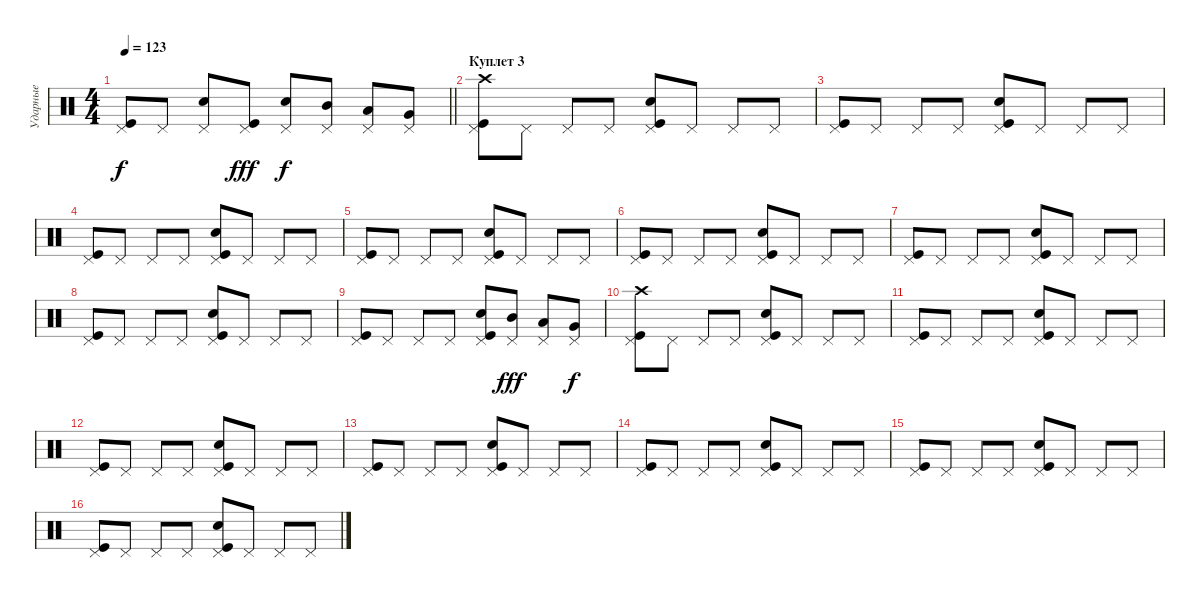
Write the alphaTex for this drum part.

\track ("Ударные" "Ударные") {instrument percussion}
\staff {score}
\articulation defaults
\ts (4 4)
\tempo 123
\clef neutral
\barLineRight lightlight
\ks c
("Kick (hit)" "Pedal Hi-Hat (hit)").8{dy f} "Pedal Hi-Hat (hit)".8 ("Pedal Hi-Hat (hit)" "Snare (hit) 2").8 ("Kick (hit)" "Pedal Hi-Hat (hit)").8{dy fff} ("Pedal Hi-Hat (hit)" "Snare (hit) 2").8{dy f} ("Pedal Hi-Hat (hit)" "Mid Tom (hit)").8 ("Pedal Hi-Hat (hit)" "Low Tom (hit)").8 ("Pedal Hi-Hat (hit)" "Very Low Tom (hit)").8 |
\section ("" "Куплет 3")
("Kick (hit)" "Pedal Hi-Hat (hit)" "Crash high (hit)").8 "Pedal Hi-Hat (hit)".8 "Pedal Hi-Hat (hit)".8 "Pedal Hi-Hat (hit)".8 ("Kick (hit)" "Pedal Hi-Hat (hit)" "Snare (hit) 2").8 "Pedal Hi-Hat (hit)".8 "Pedal Hi-Hat (hit)".8 "Pedal Hi-Hat (hit)".8 |
("Kick (hit)" "Pedal Hi-Hat (hit)").8 "Pedal Hi-Hat (hit)".8 "Pedal Hi-Hat (hit)".8 "Pedal Hi-Hat (hit)".8 ("Kick (hit)" "Pedal Hi-Hat (hit)" "Snare (hit) 2").8 "Pedal Hi-Hat (hit)".8 "Pedal Hi-Hat (hit)".8 "Pedal Hi-Hat (hit)".8 |
("Kick (hit)" "Pedal Hi-Hat (hit)").8 "Pedal Hi-Hat (hit)".8 "Pedal Hi-Hat (hit)".8 "Pedal Hi-Hat (hit)".8 ("Kick (hit)" "Pedal Hi-Hat (hit)" "Snare (hit) 2").8 "Pedal Hi-Hat (hit)".8 "Pedal Hi-Hat (hit)".8 "Pedal Hi-Hat (hit)".8 |
("Kick (hit)" "Pedal Hi-Hat (hit)").8 "Pedal Hi-Hat (hit)".8 "Pedal Hi-Hat (hit)".8 "Pedal Hi-Hat (hit)".8 ("Kick (hit)" "Pedal Hi-Hat (hit)" "Snare (hit) 2").8 "Pedal Hi-Hat (hit)".8 "Pedal Hi-Hat (hit)".8 "Pedal Hi-Hat (hit)".8 |
("Kick (hit)" "Pedal Hi-Hat (hit)").8 "Pedal Hi-Hat (hit)".8 "Pedal Hi-Hat (hit)".8 "Pedal Hi-Hat (hit)".8 ("Kick (hit)" "Pedal Hi-Hat (hit)" "Snare (hit) 2").8 "Pedal Hi-Hat (hit)".8 "Pedal Hi-Hat (hit)".8 "Pedal Hi-Hat (hit)".8 |
("Kick (hit)" "Pedal Hi-Hat (hit)").8 "Pedal Hi-Hat (hit)".8 "Pedal Hi-Hat (hit)".8 "Pedal Hi-Hat (hit)".8 ("Kick (hit)" "Pedal Hi-Hat (hit)" "Snare (hit) 2").8 "Pedal Hi-Hat (hit)".8 "Pedal Hi-Hat (hit)".8 "Pedal Hi-Hat (hit)".8 |
("Kick (hit)" "Pedal Hi-Hat (hit)").8 "Pedal Hi-Hat (hit)".8 "Pedal Hi-Hat (hit)".8 "Pedal Hi-Hat (hit)".8 ("Kick (hit)" "Pedal Hi-Hat (hit)" "Snare (hit) 2").8 "Pedal Hi-Hat (hit)".8 "Pedal Hi-Hat (hit)".8 "Pedal Hi-Hat (hit)".8 |
("Kick (hit)" "Pedal Hi-Hat (hit)").8 "Pedal Hi-Hat (hit)".8 "Pedal Hi-Hat (hit)".8 "Pedal Hi-Hat (hit)".8 ("Kick (hit)" "Pedal Hi-Hat (hit)" "Snare (hit) 2").8 ("Pedal Hi-Hat (hit)" "Mid Tom (hit)").8{dy fff} ("Pedal Hi-Hat (hit)" "Low Tom (hit)").8 ("Pedal Hi-Hat (hit)" "Very Low Tom (hit)").8{dy f} |
("Kick (hit)" "Pedal Hi-Hat (hit)" "Crash high (hit)").8 "Pedal Hi-Hat (hit)".8 "Pedal Hi-Hat (hit)".8 "Pedal Hi-Hat (hit)".8 ("Kick (hit)" "Pedal Hi-Hat (hit)" "Snare (hit) 2").8 "Pedal Hi-Hat (hit)".8 "Pedal Hi-Hat (hit)".8 "Pedal Hi-Hat (hit)".8 |
("Kick (hit)" "Pedal Hi-Hat (hit)").8 "Pedal Hi-Hat (hit)".8 "Pedal Hi-Hat (hit)".8 "Pedal Hi-Hat (hit)".8 ("Kick (hit)" "Pedal Hi-Hat (hit)" "Snare (hit) 2").8 "Pedal Hi-Hat (hit)".8 "Pedal Hi-Hat (hit)".8 "Pedal Hi-Hat (hit)".8 |
("Kick (hit)" "Pedal Hi-Hat (hit)").8 "Pedal Hi-Hat (hit)".8 "Pedal Hi-Hat (hit)".8 "Pedal Hi-Hat (hit)".8 ("Kick (hit)" "Pedal Hi-Hat (hit)" "Snare (hit) 2").8 "Pedal Hi-Hat (hit)".8 "Pedal Hi-Hat (hit)".8 "Pedal Hi-Hat (hit)".8 |
("Kick (hit)" "Pedal Hi-Hat (hit)").8 "Pedal Hi-Hat (hit)".8 "Pedal Hi-Hat (hit)".8 "Pedal Hi-Hat (hit)".8 ("Kick (hit)" "Pedal Hi-Hat (hit)" "Snare (hit) 2").8 "Pedal Hi-Hat (hit)".8 "Pedal Hi-Hat (hit)".8 "Pedal Hi-Hat (hit)".8 |
("Kick (hit)" "Pedal Hi-Hat (hit)").8 "Pedal Hi-Hat (hit)".8 "Pedal Hi-Hat (hit)".8 "Pedal Hi-Hat (hit)".8 ("Kick (hit)" "Pedal Hi-Hat (hit)" "Snare (hit) 2").8 "Pedal Hi-Hat (hit)".8 "Pedal Hi-Hat (hit)".8 "Pedal Hi-Hat (hit)".8 |
("Kick (hit)" "Pedal Hi-Hat (hit)").8 "Pedal Hi-Hat (hit)".8 "Pedal Hi-Hat (hit)".8 "Pedal Hi-Hat (hit)".8 ("Kick (hit)" "Pedal Hi-Hat (hit)" "Snare (hit) 2").8 "Pedal Hi-Hat (hit)".8 "Pedal Hi-Hat (hit)".8 "Pedal Hi-Hat (hit)".8 |
("Kick (hit)" "Pedal Hi-Hat (hit)").8 "Pedal Hi-Hat (hit)".8 "Pedal Hi-Hat (hit)".8 "Pedal Hi-Hat (hit)".8 ("Kick (hit)" "Pedal Hi-Hat (hit)" "Snare (hit) 2").8 "Pedal Hi-Hat (hit)".8 "Pedal Hi-Hat (hit)".8 "Pedal Hi-Hat (hit)".8
